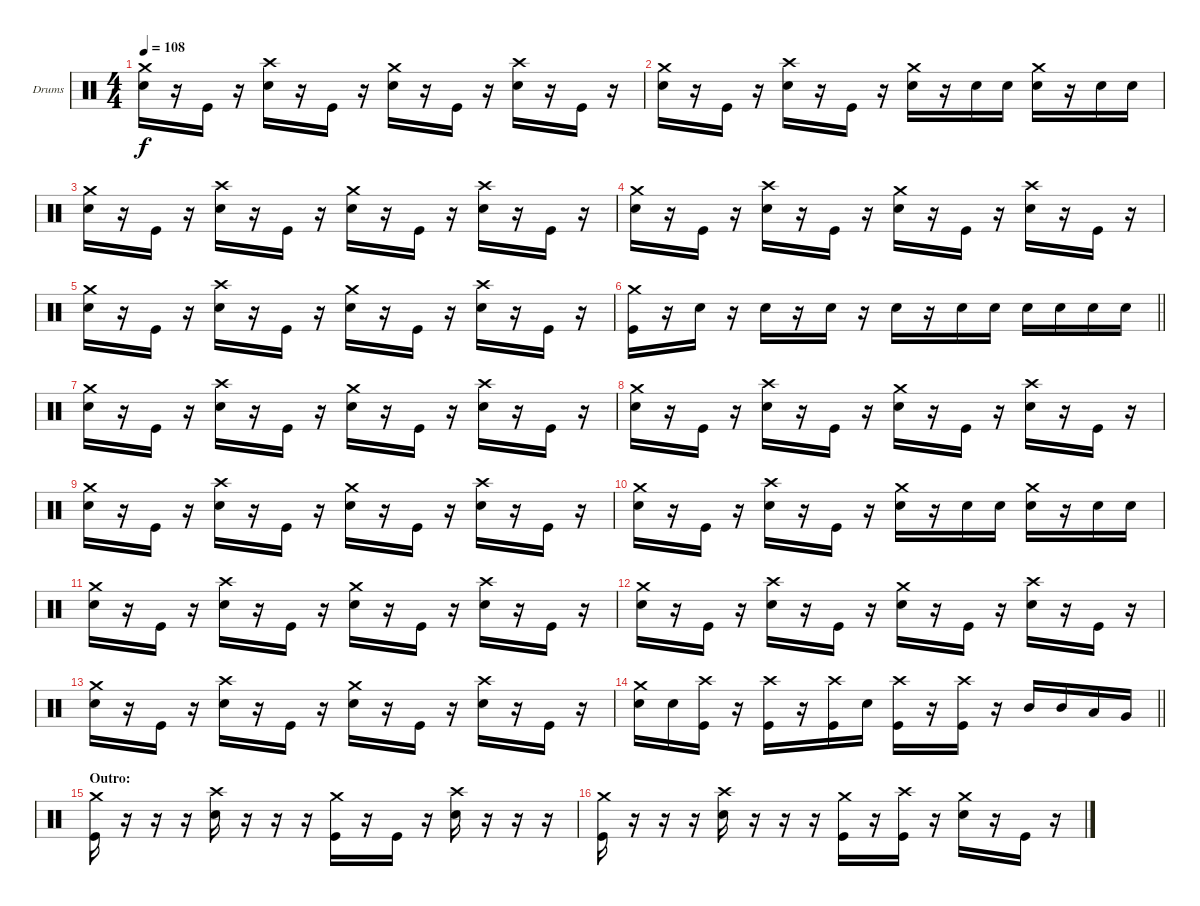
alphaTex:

\bracketExtendMode groupsimilarinstruments
\firstSystemTrackNameOrientation horizontal
\otherSystemsTrackNameOrientation horizontal
\track ("Drumkit" "Drums") {instrument percussion}
\staff {score}
\articulation defaults
\ts (4 4)
\tempo 108
\clef neutral
\ks c
("Snare (hit) 2" "Crash medium (hit)").16{dy f} r.16 "Kick (hit)".16 r.16 ("Snare (hit) 2" "Crash high (hit)").16 r.16 "Kick (hit)".16 r.16 ("Snare (hit) 2" "Crash medium (hit)").16 r.16 "Kick (hit)".16 r.16 ("Snare (hit) 2" "Crash high (hit)").16 r.16 "Kick (hit)".16 r.16 |
("Snare (hit) 2" "Crash medium (hit)").16 r.16 "Kick (hit)".16 r.16 ("Snare (hit) 2" "Crash high (hit)").16 r.16 "Kick (hit)".16 r.16 ("Snare (hit) 2" "Crash medium (hit)").16 r.16 "Snare (hit) 2".16 "Snare (hit) 2".16 ("Snare (hit) 2" "Crash medium (hit)").16 r.16 "Snare (hit) 2".16 "Snare (hit) 2".16 |
("Snare (hit) 2" "Crash medium (hit)").16 r.16 "Kick (hit)".16 r.16 ("Snare (hit) 2" "Crash high (hit)").16 r.16 "Kick (hit)".16 r.16 ("Snare (hit) 2" "Crash medium (hit)").16 r.16 "Kick (hit)".16 r.16 ("Snare (hit) 2" "Crash high (hit)").16 r.16 "Kick (hit)".16 r.16 |
("Snare (hit) 2" "Crash medium (hit)").16 r.16 "Kick (hit)".16 r.16 ("Snare (hit) 2" "Crash high (hit)").16 r.16 "Kick (hit)".16 r.16 ("Snare (hit) 2" "Crash medium (hit)").16 r.16 "Kick (hit)".16 r.16 ("Snare (hit) 2" "Crash high (hit)").16 r.16 "Kick (hit)".16 r.16 |
("Snare (hit) 2" "Crash medium (hit)").16 r.16 "Kick (hit)".16 r.16 ("Snare (hit) 2" "Crash high (hit)").16 r.16 "Kick (hit)".16 r.16 ("Snare (hit) 2" "Crash medium (hit)").16 r.16 "Kick (hit)".16 r.16 ("Snare (hit) 2" "Crash high (hit)").16 r.16 "Kick (hit)".16 r.16 |
\barLineRight lightlight
("Kick (hit)" "Crash medium (hit)").16 r.16 "Snare (hit) 2".16 r.16 "Snare (hit) 2".16 r.16 "Snare (hit) 2".16 r.16 "Snare (hit) 2".16 r.16 "Snare (hit) 2".16 "Snare (hit) 2".16 "Snare (hit) 2".16 "Snare (hit) 2".16 "Snare (hit) 2".16 "Snare (hit) 2".16 |
("Snare (hit) 2" "Crash medium (hit)").16 r.16 "Kick (hit)".16 r.16 ("Snare (hit) 2" "Crash high (hit)").16 r.16 "Kick (hit)".16 r.16 ("Snare (hit) 2" "Crash medium (hit)").16 r.16 "Kick (hit)".16 r.16 ("Snare (hit) 2" "Crash high (hit)").16 r.16 "Kick (hit)".16 r.16 |
("Snare (hit) 2" "Crash medium (hit)").16 r.16 "Kick (hit)".16 r.16 ("Snare (hit) 2" "Crash high (hit)").16 r.16 "Kick (hit)".16 r.16 ("Snare (hit) 2" "Crash medium (hit)").16 r.16 "Kick (hit)".16 r.16 ("Snare (hit) 2" "Crash high (hit)").16 r.16 "Kick (hit)".16 r.16 |
("Snare (hit) 2" "Crash medium (hit)").16 r.16 "Kick (hit)".16 r.16 ("Snare (hit) 2" "Crash high (hit)").16 r.16 "Kick (hit)".16 r.16 ("Snare (hit) 2" "Crash medium (hit)").16 r.16 "Kick (hit)".16 r.16 ("Snare (hit) 2" "Crash high (hit)").16 r.16 "Kick (hit)".16 r.16 |
("Snare (hit) 2" "Crash medium (hit)").16 r.16 "Kick (hit)".16 r.16 ("Snare (hit) 2" "Crash high (hit)").16 r.16 "Kick (hit)".16 r.16 ("Snare (hit) 2" "Crash medium (hit)").16 r.16 "Snare (hit) 2".16 "Snare (hit) 2".16 ("Snare (hit) 2" "Crash medium (hit)").16 r.16 "Snare (hit) 2".16 "Snare (hit) 2".16 |
("Snare (hit) 2" "Crash medium (hit)").16 r.16 "Kick (hit)".16 r.16 ("Snare (hit) 2" "Crash high (hit)").16 r.16 "Kick (hit)".16 r.16 ("Snare (hit) 2" "Crash medium (hit)").16 r.16 "Kick (hit)".16 r.16 ("Snare (hit) 2" "Crash high (hit)").16 r.16 "Kick (hit)".16 r.16 |
("Snare (hit) 2" "Crash medium (hit)").16 r.16 "Kick (hit)".16 r.16 ("Snare (hit) 2" "Crash high (hit)").16 r.16 "Kick (hit)".16 r.16 ("Snare (hit) 2" "Crash medium (hit)").16 r.16 "Kick (hit)".16 r.16 ("Snare (hit) 2" "Crash high (hit)").16 r.16 "Kick (hit)".16 r.16 |
("Snare (hit) 2" "Crash medium (hit)").16 r.16 "Kick (hit)".16 r.16 ("Snare (hit) 2" "Crash high (hit)").16 r.16 "Kick (hit)".16 r.16 ("Snare (hit) 2" "Crash medium (hit)").16 r.16 "Kick (hit)".16 r.16 ("Snare (hit) 2" "Crash high (hit)").16 r.16 "Kick (hit)".16 r.16 |
\barLineRight lightlight
("Snare (hit) 2" "Crash medium (hit)").16 "Snare (hit) 2".16 ("Kick (hit)" "Crash high (hit)").16 r.16 ("Kick (hit)" "Crash high (hit)").16 r.16 ("Kick (hit)" "Crash high (hit)").16 "Snare (hit) 2".16 ("Kick (hit)" "Crash high (hit)").16 r.16 ("Kick (hit)" "Crash high (hit)").16 r.16 "Mid Tom (hit)".16 "Mid Tom (hit)".16 "Low Tom (hit)".16 "Very Low Tom (hit)".16 |
\section ("" "Outro:")
("Kick (hit)" "Crash medium (hit)").16 r.16 r.16 r.16 ("Snare (hit) 2" "Crash high (hit)").16 r.16 r.16 r.16 ("Kick (hit)" "Crash medium (hit)").16 r.16 "Kick (hit)".16 r.16 ("Snare (hit) 2" "Crash high (hit)").16 r.16 r.16 r.16 |
("Kick (hit)" "Crash medium (hit)").16 r.16 r.16 r.16 ("Snare (hit) 2" "Crash high (hit)").16 r.16 r.16 r.16 ("Kick (hit)" "Crash medium (hit)").16 r.16 ("Kick (hit)" "Crash high (hit)").16 r.16 ("Snare (hit) 2" "Crash medium (hit)").16 r.16 "Kick (hit)".16 r.16
